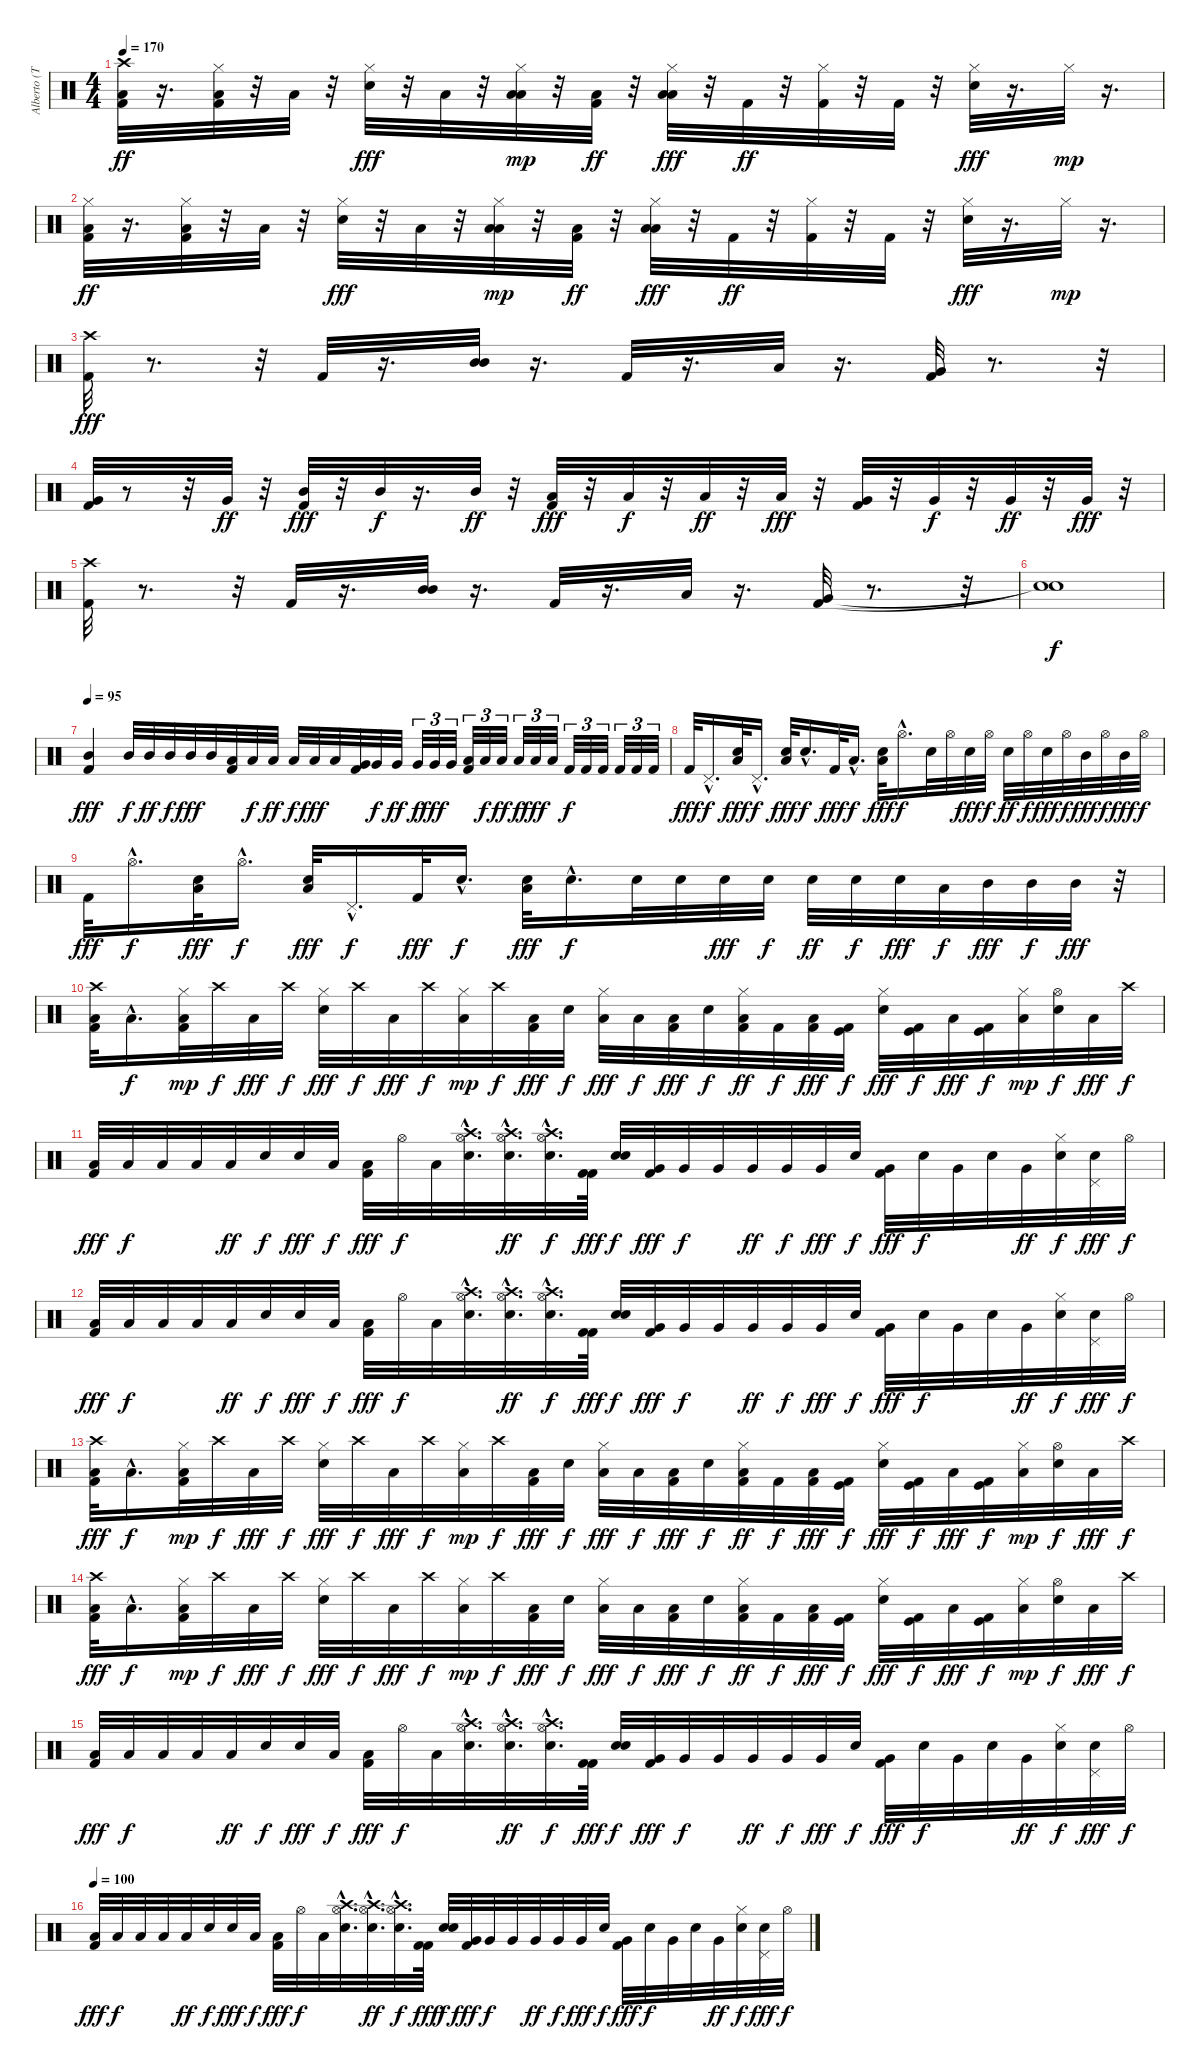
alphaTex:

\track ("Alberto (Toshi)" "Alberto (T") {instrument percussion}
\staff {score}
\articulation defaults
\ts (4 4)
\tempo 170
\clef neutral
\ks c
("Low Floor Tom (hit)" "Crash high (hit)" "Kick (hit) 2").32{dy ff} r.16{d} ("Low Floor Tom (hit)" "Hi-Hat (closed)" "Kick (hit) 2").32 r.32 "Low Floor Tom (hit)".32 r.32 ("Electric Snare (hit)" "Hi-Hat (closed)").32{dy fff} r.32 "Low Tom (hit)".32 r.32 ("Low Floor Tom (hit)" "Low Tom (hit)" "Hi-Hat (closed)").32{dy mp} r.32 ("Low Tom (hit)" "Kick (hit) 2").32{dy ff} r.32 ("Low Floor Tom (hit)" "Low Tom (hit)" "Hi-Hat (closed)").32{dy fff} r.32 "Kick (hit) 2".32{dy ff} r.32 ("Hi-Hat (closed)" "Kick (hit) 2").32 r.32 "Kick (hit) 2".32 r.32 ("Electric Snare (hit)" "Hi-Hat (closed)").32{dy fff} r.16{d} "Hi-Hat (closed)".32{dy mp} r.16{d} |
("Hi-Hat (closed)" "Low Floor Tom (hit)" "Kick (hit) 2").32{dy ff} r.16{d} ("Low Floor Tom (hit)" "Hi-Hat (closed)" "Kick (hit) 2").32 r.32 "Low Floor Tom (hit)".32 r.32 ("Electric Snare (hit)" "Hi-Hat (closed)").32{dy fff} r.32 "Low Tom (hit)".32 r.32 ("Low Floor Tom (hit)" "Low Tom (hit)" "Hi-Hat (closed)").32{dy mp} r.32 ("Low Tom (hit)" "Kick (hit) 2").32{dy ff} r.32 ("Low Floor Tom (hit)" "Low Tom (hit)" "Hi-Hat (closed)").32{dy fff} r.32 "Kick (hit) 2".32{dy ff} r.32 ("Hi-Hat (closed)" "Kick (hit) 2").32 r.32 "Kick (hit) 2".32 r.32 ("Electric Snare (hit)" "Hi-Hat (closed)").32{dy fff} r.16{d} "Hi-Hat (closed)".32{dy mp} r.16{d} |
("Crash high (hit)" "Kick (hit) 2").32{dy fff} r.8{d} r.32 "Kick (hit) 2".32 r.16{d} ("Mid Tom (hit)" "Mid Tom (hit)").32 r.16{d} "Kick (hit) 2".32 r.16{d} "Low Tom (hit)".32 r.16{d} ("Kick (hit) 2" "Very Low Tom (hit)").32 r.8{d} r.32 |
("Kick (hit) 2" "Very Low Tom (hit)").32 r.8 r.32 "Very Low Tom (hit)".32{dy ff} r.32 ("Mid Tom (hit)" "Kick (hit) 2").32{dy fff} r.32 "Mid Tom (hit)".32{dy f} r.16{d} "Mid Tom (hit)".32{dy ff} r.32 ("Low Tom (hit)" "Kick (hit) 2").32{dy fff} r.32 "Low Tom (hit)".32{dy f} r.32 "Low Tom (hit)".32{dy ff} r.32 "Low Tom (hit)".32{dy fff} r.32 ("Kick (hit) 2" "Very Low Tom (hit)").32 r.32 "Very Low Tom (hit)".32{dy f} r.32 "Very Low Tom (hit)".32{dy ff} r.32 "Very Low Tom (hit)".32{dy fff} r.32 |
("Crash high (hit)" "Kick (hit) 2").32 r.8{d} r.32 "Kick (hit) 2".32 r.16{d} ("Mid Tom (hit)" "Mid Tom (hit)").32 r.16{d} "Kick (hit) 2".32 r.16{d} "Low Tom (hit)".32 r.16{d} ("Kick (hit) 2" "Very Low Tom (hit)").32 r.8{d} r.32 |
("Snare (hit)"{t} "Snare (hit)"{t}).1{dy f} |
\tempo 95
("Mid Tom (hit)" "Kick (hit) 2").4{dy fff} "Mid Tom (hit)".32{dy f} "Mid Tom (hit)".32{dy ff} "Mid Tom (hit)".32{dy f} "Mid Tom (hit)".32{dy fff} "Mid Tom (hit)".32 ("Low Tom (hit)" "Kick (hit) 2").32 "Low Tom (hit)".32{dy f} "Low Tom (hit)".32{dy ff} "Low Tom (hit)".32{dy f} "Low Tom (hit)".32{dy fff} "Low Tom (hit)".32 ("Very Low Tom (hit)" "Kick (hit) 2").32 "Very Low Tom (hit)".32{dy f} "Very Low Tom (hit)".32{dy ff} "Very Low Tom (hit)".32{tu (3 2) dy f} "Very Low Tom (hit)".32{tu (3 2) dy fff} "Very Low Tom (hit)".32{tu (3 2)} ("Low Floor Tom (hit)" "Kick (hit) 2").32{tu (3 2)} "Low Floor Tom (hit)".32{tu (3 2) dy f} "Low Floor Tom (hit)".32{tu (3 2) dy ff} "Low Floor Tom (hit)".32{tu (3 2) dy f} "Low Floor Tom (hit)".32{tu (3 2) dy fff} "Low Floor Tom (hit)".32{tu (3 2)} "Kick (hit) 2".32{tu (3 2) dy f} "Kick (hit) 2".32{tu (3 2)} "Kick (hit) 2".32{tu (3 2)} "Kick (hit) 2".32{tu (3 2)} "Kick (hit) 2".32{tu (3 2)} "Kick (hit) 2".32{tu (3 2)} |
"Kick (hit) 2".32{dy fff} "Pedal Hi-Hat (hit)"{hac}.16{d dy f} ("Low Floor Tom (hit)" "Electric Snare (hit)").32{dy fff} "Pedal Hi-Hat (hit)"{hac}.16{d dy f} ("Low Floor Tom (hit)" "Electric Snare (hit)").32{dy fff} "Electric Snare (hit)"{hac}.16{d dy f} "Kick (hit) 2".32{dy fff} "Low Tom (hit)"{hac}.16{d dy f} ("Low Floor Tom (hit)" "Electric Snare (hit)").32{dy fff} "Hi-Hat (open)"{hac}.16{d dy f} "Electric Snare (hit)".32 "Hi-Hat (open)".32 "Electric Snare (hit)".32{dy fff} "Hi-Hat (open)".32{dy f} "Electric Snare (hit)".32{dy ff} "Hi-Hat (open)".32{dy f} "Electric Snare (hit)".32{dy fff} "Hi-Hat (open)".32{dy f} "Mid Tom (hit)".32{dy fff} "Hi-Hat (open)".32{dy f} "Mid Tom (hit)".32{dy fff} "Hi-Hat (open)".32{dy f} |
"Kick (hit) 2".32{dy fff} "Hi-Hat (open)"{hac}.16{d dy f} ("Low Floor Tom (hit)" "Electric Snare (hit)").32{dy fff} "Hi-Hat (open)"{hac}.16{d dy f} ("Low Floor Tom (hit)" "Electric Snare (hit)").32{dy fff} "Pedal Hi-Hat (hit)"{hac}.16{d dy f} "Kick (hit) 2".32{dy fff} "Electric Snare (hit)"{hac}.16{d dy f} ("Low Floor Tom (hit)" "Electric Snare (hit)").32{dy fff} "Electric Snare (hit)"{hac}.16{d dy f} "Electric Snare (hit)".32 "Electric Snare (hit)".32 "Electric Snare (hit)".32{dy fff} "Electric Snare (hit)".32{dy f} "Electric Snare (hit)".32{dy ff} "Electric Snare (hit)".32{dy f} "Electric Snare (hit)".32{dy fff} "Low Tom (hit)".32{dy f} "Mid Tom (hit)".32{dy fff} "Mid Tom (hit)".32{dy f} "Mid Tom (hit)".32{dy fff} r.32 |
("Low Floor Tom (hit)" "Kick (hit) 2" "Crash high (hit)").32 "Low Floor Tom (hit)"{hac}.16{d dy f} ("Low Floor Tom (hit)" "Kick (hit) 2" "Hi-Hat (closed)").32{dy mp} "Crash high (hit)".32{dy f} "Low Floor Tom (hit)".32{dy fff} "Crash high (hit)".32{dy f} ("Electric Snare (hit)" "Hi-Hat (closed)").32{dy fff} "Crash high (hit)".32{dy f} "Low Floor Tom (hit)".32{dy fff} "Crash high (hit)".32{dy f} ("Low Floor Tom (hit)" "Hi-Hat (closed)").32{dy mp} "Crash high (hit)".32{dy f} ("Kick (hit) 2" "Low Tom (hit)").32{dy fff} "Electric Snare (hit)".32{dy f} ("Low Floor Tom (hit)" "Hi-Hat (closed)").32{dy fff} "Low Tom (hit)".32{dy f} ("Kick (hit) 2" "Low Tom (hit)").32{dy fff} "Electric Snare (hit)".32{dy f} ("Kick (hit) 2" "Hi-Hat (closed)" "Low Tom (hit)").32{dy ff} "Kick (hit) 2".32{dy f} ("Kick (hit) 2" "Low Tom (hit)").32{dy fff} ("Kick (hit) 2" "Kick (hit)").32{dy f} ("Electric Snare (hit)" "Hi-Hat (closed)").32{dy fff} ("Kick (hit)" "Kick (hit) 2").32{dy f} "Low Tom (hit)".32{dy fff} ("Kick (hit)" "Kick (hit) 2").32{dy f} ("Low Floor Tom (hit)" "Hi-Hat (closed)").32{dy mp} ("Electric Snare (hit)" "Hi-Hat (open)").32{dy f} "Low Tom (hit)".32{dy fff} "Crash high (hit)".32{dy f} |
("Kick (hit) 2" "Low Tom (hit)").32{dy fff} "Low Tom (hit)".32{dy f} "Low Tom (hit)".32 "Low Tom (hit)".32 "Low Tom (hit)".32{dy ff} "Electric Snare (hit)".32{dy f} "Electric Snare (hit)".32{dy fff} "Low Tom (hit)".32{dy f} ("Kick (hit) 2" "Low Tom (hit)").32{dy fff} "Hi-Hat (open)".32{dy f} "Low Tom (hit)".32 ("Hi-Hat (open)"{hac} "Crash high (hit)"{hac} "Electric Snare (hit)"{hac}).32{d} ("Hi-Hat (open)"{hac} "Crash high (hit)"{hac} "Electric Snare (hit)"{hac}).32{d dy ff} ("Hi-Hat (open)"{hac} "Crash high (hit)"{hac} "Electric Snare (hit)"{hac}).32{d dy f} ("Kick (hit) 2" "Kick (hit) 2").64{dy fff} ("Electric Snare (hit)" "Electric Snare (hit)").32{dy f} ("Kick (hit) 2" "Very Low Tom (hit)").32{dy fff} "Very Low Tom (hit)".32{dy f} "Very Low Tom (hit)".32 "Very Low Tom (hit)".32{dy ff} "Very Low Tom (hit)".32{dy f} "Very Low Tom (hit)".32{dy fff} "Electric Snare (hit)".32{dy f} ("Kick (hit) 2" "Very Low Tom (hit)").32{dy fff} "Electric Snare (hit)".32{dy f} "Very Low Tom (hit)".32 "Electric Snare (hit)".32 "Very Low Tom (hit)".32{dy ff} ("Electric Snare (hit)" "Hi-Hat (closed)").32{dy f} ("Pedal Hi-Hat (hit)" "Electric Snare (hit)").32{dy fff} "Hi-Hat (open)".32{dy f} |
("Kick (hit) 2" "Low Tom (hit)").32{dy fff} "Low Tom (hit)".32{dy f} "Low Tom (hit)".32 "Low Tom (hit)".32 "Low Tom (hit)".32{dy ff} "Electric Snare (hit)".32{dy f} "Electric Snare (hit)".32{dy fff} "Low Tom (hit)".32{dy f} ("Kick (hit) 2" "Low Tom (hit)").32{dy fff} "Hi-Hat (open)".32{dy f} "Low Tom (hit)".32 ("Hi-Hat (open)"{hac} "Crash high (hit)"{hac} "Electric Snare (hit)"{hac}).32{d} ("Hi-Hat (open)"{hac} "Crash high (hit)"{hac} "Electric Snare (hit)"{hac}).32{d dy ff} ("Hi-Hat (open)"{hac} "Crash high (hit)"{hac} "Electric Snare (hit)"{hac}).32{d dy f} ("Kick (hit) 2" "Kick (hit) 2").64{dy fff} ("Electric Snare (hit)" "Electric Snare (hit)").32{dy f} ("Kick (hit) 2" "Very Low Tom (hit)").32{dy fff} "Very Low Tom (hit)".32{dy f} "Very Low Tom (hit)".32 "Very Low Tom (hit)".32{dy ff} "Very Low Tom (hit)".32{dy f} "Very Low Tom (hit)".32{dy fff} "Electric Snare (hit)".32{dy f} ("Kick (hit) 2" "Very Low Tom (hit)").32{dy fff} "Electric Snare (hit)".32{dy f} "Very Low Tom (hit)".32 "Electric Snare (hit)".32 "Very Low Tom (hit)".32{dy ff} ("Electric Snare (hit)" "Hi-Hat (closed)").32{dy f} ("Pedal Hi-Hat (hit)" "Electric Snare (hit)").32{dy fff} "Hi-Hat (open)".32{dy f} |
("Low Floor Tom (hit)" "Kick (hit) 2" "Crash high (hit)").32{dy fff} "Low Floor Tom (hit)"{hac}.16{d dy f} ("Low Floor Tom (hit)" "Kick (hit) 2" "Hi-Hat (closed)").32{dy mp} "Crash high (hit)".32{dy f} "Low Floor Tom (hit)".32{dy fff} "Crash high (hit)".32{dy f} ("Electric Snare (hit)" "Hi-Hat (closed)").32{dy fff} "Crash high (hit)".32{dy f} "Low Floor Tom (hit)".32{dy fff} "Crash high (hit)".32{dy f} ("Low Floor Tom (hit)" "Hi-Hat (closed)").32{dy mp} "Crash high (hit)".32{dy f} ("Kick (hit) 2" "Low Tom (hit)").32{dy fff} "Electric Snare (hit)".32{dy f} ("Low Floor Tom (hit)" "Hi-Hat (closed)").32{dy fff} "Low Tom (hit)".32{dy f} ("Kick (hit) 2" "Low Tom (hit)").32{dy fff} "Electric Snare (hit)".32{dy f} ("Kick (hit) 2" "Hi-Hat (closed)" "Low Tom (hit)").32{dy ff} "Kick (hit) 2".32{dy f} ("Kick (hit) 2" "Low Tom (hit)").32{dy fff} ("Kick (hit) 2" "Kick (hit)").32{dy f} ("Electric Snare (hit)" "Hi-Hat (closed)").32{dy fff} ("Kick (hit)" "Kick (hit) 2").32{dy f} "Low Tom (hit)".32{dy fff} ("Kick (hit)" "Kick (hit) 2").32{dy f} ("Low Floor Tom (hit)" "Hi-Hat (closed)").32{dy mp} ("Electric Snare (hit)" "Hi-Hat (open)").32{dy f} "Low Tom (hit)".32{dy fff} "Crash high (hit)".32{dy f} |
("Low Floor Tom (hit)" "Kick (hit) 2" "Crash high (hit)").32{dy fff} "Low Floor Tom (hit)"{hac}.16{d dy f} ("Low Floor Tom (hit)" "Kick (hit) 2" "Hi-Hat (closed)").32{dy mp} "Crash high (hit)".32{dy f} "Low Floor Tom (hit)".32{dy fff} "Crash high (hit)".32{dy f} ("Electric Snare (hit)" "Hi-Hat (closed)").32{dy fff} "Crash high (hit)".32{dy f} "Low Floor Tom (hit)".32{dy fff} "Crash high (hit)".32{dy f} ("Low Floor Tom (hit)" "Hi-Hat (closed)").32{dy mp} "Crash high (hit)".32{dy f} ("Kick (hit) 2" "Low Tom (hit)").32{dy fff} "Electric Snare (hit)".32{dy f} ("Low Floor Tom (hit)" "Hi-Hat (closed)").32{dy fff} "Low Tom (hit)".32{dy f} ("Kick (hit) 2" "Low Tom (hit)").32{dy fff} "Electric Snare (hit)".32{dy f} ("Kick (hit) 2" "Hi-Hat (closed)" "Low Tom (hit)").32{dy ff} "Kick (hit) 2".32{dy f} ("Kick (hit) 2" "Low Tom (hit)").32{dy fff} ("Kick (hit) 2" "Kick (hit)").32{dy f} ("Electric Snare (hit)" "Hi-Hat (closed)").32{dy fff} ("Kick (hit)" "Kick (hit) 2").32{dy f} "Low Tom (hit)".32{dy fff} ("Kick (hit)" "Kick (hit) 2").32{dy f} ("Low Floor Tom (hit)" "Hi-Hat (closed)").32{dy mp} ("Electric Snare (hit)" "Hi-Hat (open)").32{dy f} "Low Tom (hit)".32{dy fff} "Crash high (hit)".32{dy f} |
("Kick (hit) 2" "Low Tom (hit)").32{dy fff} "Low Tom (hit)".32{dy f} "Low Tom (hit)".32 "Low Tom (hit)".32 "Low Tom (hit)".32{dy ff} "Electric Snare (hit)".32{dy f} "Electric Snare (hit)".32{dy fff} "Low Tom (hit)".32{dy f} ("Kick (hit) 2" "Low Tom (hit)").32{dy fff} "Hi-Hat (open)".32{dy f} "Low Tom (hit)".32 ("Hi-Hat (open)"{hac} "Crash high (hit)"{hac} "Electric Snare (hit)"{hac}).32{d} ("Hi-Hat (open)"{hac} "Crash high (hit)"{hac} "Electric Snare (hit)"{hac}).32{d dy ff} ("Hi-Hat (open)"{hac} "Crash high (hit)"{hac} "Electric Snare (hit)"{hac}).32{d dy f} ("Kick (hit) 2" "Kick (hit) 2").64{dy fff} ("Electric Snare (hit)" "Electric Snare (hit)").32{dy f} ("Kick (hit) 2" "Very Low Tom (hit)").32{dy fff} "Very Low Tom (hit)".32{dy f} "Very Low Tom (hit)".32 "Very Low Tom (hit)".32{dy ff} "Very Low Tom (hit)".32{dy f} "Very Low Tom (hit)".32{dy fff} "Electric Snare (hit)".32{dy f} ("Kick (hit) 2" "Very Low Tom (hit)").32{dy fff} "Electric Snare (hit)".32{dy f} "Very Low Tom (hit)".32 "Electric Snare (hit)".32 "Very Low Tom (hit)".32{dy ff} ("Electric Snare (hit)" "Hi-Hat (closed)").32{dy f} ("Pedal Hi-Hat (hit)" "Electric Snare (hit)").32{dy fff} "Hi-Hat (open)".32{dy f} |
\tempo 100
("Kick (hit) 2" "Low Tom (hit)").32{dy fff} "Low Tom (hit)".32{dy f} "Low Tom (hit)".32 "Low Tom (hit)".32 "Low Tom (hit)".32{dy ff} "Electric Snare (hit)".32{dy f} "Electric Snare (hit)".32{dy fff} "Low Tom (hit)".32{dy f} ("Kick (hit) 2" "Low Tom (hit)").32{dy fff} "Hi-Hat (open)".32{dy f} "Low Tom (hit)".32 ("Hi-Hat (open)"{hac} "Crash high (hit)"{hac} "Electric Snare (hit)"{hac}).32{d} ("Hi-Hat (open)"{hac} "Crash high (hit)"{hac} "Electric Snare (hit)"{hac}).32{d dy ff} ("Hi-Hat (open)"{hac} "Crash high (hit)"{hac} "Electric Snare (hit)"{hac}).32{d dy f} ("Kick (hit) 2" "Kick (hit) 2").64{dy fff} ("Electric Snare (hit)" "Electric Snare (hit)").32{dy f} ("Kick (hit) 2" "Very Low Tom (hit)").32{dy fff} "Very Low Tom (hit)".32{dy f} "Very Low Tom (hit)".32 "Very Low Tom (hit)".32{dy ff} "Very Low Tom (hit)".32{dy f} "Very Low Tom (hit)".32{dy fff} "Electric Snare (hit)".32{dy f} ("Kick (hit) 2" "Very Low Tom (hit)").32{dy fff} "Electric Snare (hit)".32{dy f} "Very Low Tom (hit)".32 "Electric Snare (hit)".32 "Very Low Tom (hit)".32{dy ff} ("Electric Snare (hit)" "Hi-Hat (closed)").32{dy f} ("Pedal Hi-Hat (hit)" "Electric Snare (hit)").32{dy fff} "Hi-Hat (open)".32{dy f}
